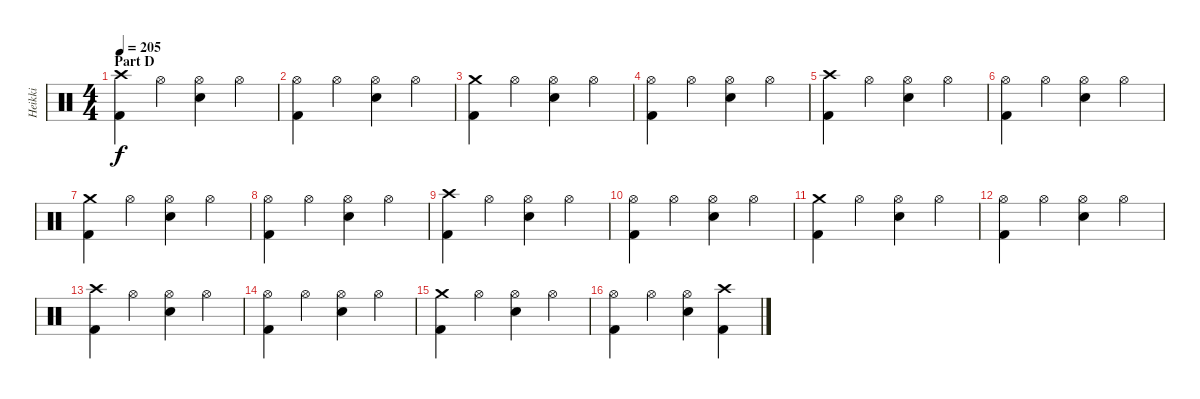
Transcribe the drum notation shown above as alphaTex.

\track ("Heikki" "Heikki") {instrument percussion}
\staff {score}
\articulation defaults
\ts (4 4)
\section ("" "Part D")
\tempo 205
\clef neutral
\ks c
("Crash high (hit)" "Kick (hit) 2").4{dy f} "Hi-Hat (open)".4 ("Hi-Hat (open)" "Electric Snare (hit)").4 "Hi-Hat (open)".4 |
("Hi-Hat (open)" "Kick (hit) 2").4 "Hi-Hat (open)".4 ("Hi-Hat (open)" "Electric Snare (hit)").4 "Hi-Hat (open)".4 |
("Crash medium (hit)" "Kick (hit) 2").4 "Hi-Hat (open)".4 ("Hi-Hat (open)" "Electric Snare (hit)").4 "Hi-Hat (open)".4 |
("Hi-Hat (open)" "Kick (hit) 2").4 "Hi-Hat (open)".4 ("Hi-Hat (open)" "Electric Snare (hit)").4 "Hi-Hat (open)".4 |
("Crash high (hit)" "Kick (hit) 2").4 "Hi-Hat (open)".4 ("Hi-Hat (open)" "Electric Snare (hit)").4 "Hi-Hat (open)".4 |
("Hi-Hat (open)" "Kick (hit) 2").4 "Hi-Hat (open)".4 ("Hi-Hat (open)" "Electric Snare (hit)").4 "Hi-Hat (open)".4 |
("Crash medium (hit)" "Kick (hit) 2").4 "Hi-Hat (open)".4 ("Hi-Hat (open)" "Electric Snare (hit)").4 "Hi-Hat (open)".4 |
("Hi-Hat (open)" "Kick (hit) 2").4 "Hi-Hat (open)".4 ("Hi-Hat (open)" "Electric Snare (hit)").4 "Hi-Hat (open)".4 |
("Crash high (hit)" "Kick (hit) 2").4 "Hi-Hat (open)".4 ("Hi-Hat (open)" "Electric Snare (hit)").4 "Hi-Hat (open)".4 |
("Hi-Hat (open)" "Kick (hit) 2").4 "Hi-Hat (open)".4 ("Hi-Hat (open)" "Electric Snare (hit)").4 "Hi-Hat (open)".4 |
("Crash medium (hit)" "Kick (hit) 2").4 "Hi-Hat (open)".4 ("Hi-Hat (open)" "Electric Snare (hit)").4 "Hi-Hat (open)".4 |
("Hi-Hat (open)" "Kick (hit) 2").4 "Hi-Hat (open)".4 ("Hi-Hat (open)" "Electric Snare (hit)").4 "Hi-Hat (open)".4 |
("Crash high (hit)" "Kick (hit) 2").4 "Hi-Hat (open)".4 ("Hi-Hat (open)" "Electric Snare (hit)").4 "Hi-Hat (open)".4 |
("Hi-Hat (open)" "Kick (hit) 2").4 "Hi-Hat (open)".4 ("Hi-Hat (open)" "Electric Snare (hit)").4 "Hi-Hat (open)".4 |
("Crash medium (hit)" "Kick (hit) 2").4 "Hi-Hat (open)".4 ("Hi-Hat (open)" "Electric Snare (hit)").4 "Hi-Hat (open)".4 |
("Hi-Hat (open)" "Kick (hit) 2").4 "Hi-Hat (open)".4 ("Hi-Hat (open)" "Electric Snare (hit)").4 ("Crash high (hit)" "Kick (hit) 2").4
